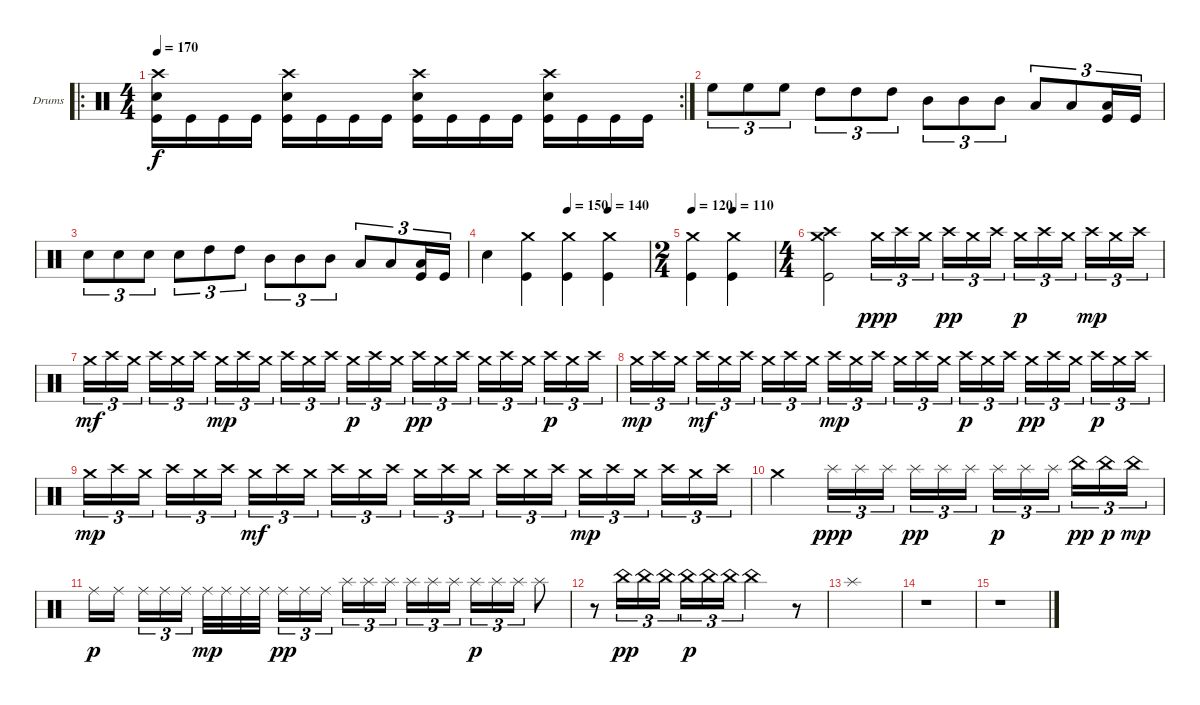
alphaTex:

\bracketExtendMode groupsimilarinstruments
\firstSystemTrackNameOrientation horizontal
\otherSystemsTrackNameOrientation horizontal
\track ("Дмитрий Кривенков" "Drums") {instrument percussion}
\staff {score}
\articulation defaults
\ro
\rc 2
\ts (4 4)
\tempo 170
\clef neutral
\ks c
("Crash high (hit)" "Snare (hit) 2" "Kick (hit)").16{dy f} "Kick (hit)".16 "Kick (hit)".16 "Kick (hit)".16 ("Crash high (hit)" "Snare (hit) 2" "Kick (hit)").16 "Kick (hit)".16 "Kick (hit)".16 "Kick (hit)".16 ("Crash high (hit)" "Snare (hit) 2" "Kick (hit)").16 "Kick (hit)".16 "Kick (hit)".16 "Kick (hit)".16 ("Crash high (hit)" "Snare (hit) 2" "Kick (hit)").16 "Kick (hit)".16 "Kick (hit)".16 "Kick (hit)".16 |
"High Floor Tom (hit)".8{tu (3 2)} "High Floor Tom (hit)".8{tu (3 2)} "High Floor Tom (hit)".8{tu (3 2)} "High Tom (hit)".8{tu (3 2)} "High Tom (hit)".8{tu (3 2)} "High Tom (hit)".8{tu (3 2)} "Mid Tom (hit)".8{tu (3 2)} "Mid Tom (hit)".8{tu (3 2)} "Mid Tom (hit)".8{tu (3 2)} "Low Tom (hit)".8{tu (3 2)} "Low Tom (hit)".8{tu (3 2)} ("Low Tom (hit)" "Kick (hit)").16{tu (3 2)} "Kick (hit)".16{tu (3 2)} |
"Snare (hit) 2".8{tu (3 2)} "Snare (hit) 2".8{tu (3 2)} "Snare (hit) 2".8{tu (3 2)} "Snare (hit) 2".8{tu (3 2)} "High Tom (hit)".8{tu (3 2)} "High Tom (hit)".8{tu (3 2)} "Mid Tom (hit)".8{tu (3 2)} "Mid Tom (hit)".8{tu (3 2)} "Mid Tom (hit)".8{tu (3 2)} "Low Tom (hit)".8{tu (3 2)} "Low Tom (hit)".8{tu (3 2)} ("Low Tom (hit)" "Kick (hit)").16{tu (3 2)} "Kick (hit)".16{tu (3 2)} |
\tempo (150 0.5)
\tempo (140 0.75)
"Snare (hit) 2".4 ("Crash medium (hit)" "Kick (hit)").4 ("Crash medium (hit)" "Kick (hit)").4 ("Crash medium (hit)" "Kick (hit)").4 |
\ts (2 4)
\beaming (8 2 2)
\tempo 120
\tempo (110 0.5)
("Crash medium (hit)" "Kick (hit)").4 ("Crash medium (hit)" "Kick (hit)").4 |
\ts (4 4)
\beaming (8 2 2 2 2)
("Crash high (hit)" "Crash medium (hit)" "Kick (hit)").2 "Crash medium (hit)".16{tu (3 2) dy ppp} "Crash high (hit)".16{tu (3 2)} "Crash medium (hit)".16{tu (3 2)} "Crash high (hit)".16{tu (3 2) dy pp} "Crash medium (hit)".16{tu (3 2)} "Crash high (hit)".16{tu (3 2)} "Crash medium (hit)".16{tu (3 2) dy p} "Crash high (hit)".16{tu (3 2)} "Crash medium (hit)".16{tu (3 2)} "Crash high (hit)".16{tu (3 2) dy mp} "Crash medium (hit)".16{tu (3 2)} "Crash high (hit)".16{tu (3 2)} |
"Crash medium (hit)".16{tu (3 2) dy mf} "Crash high (hit)".16{tu (3 2)} "Crash medium (hit)".16{tu (3 2)} "Crash high (hit)".16{tu (3 2)} "Crash medium (hit)".16{tu (3 2)} "Crash high (hit)".16{tu (3 2)} "Crash medium (hit)".16{tu (3 2) dy mp} "Crash high (hit)".16{tu (3 2)} "Crash medium (hit)".16{tu (3 2)} "Crash high (hit)".16{tu (3 2)} "Crash medium (hit)".16{tu (3 2)} "Crash high (hit)".16{tu (3 2)} "Crash medium (hit)".16{tu (3 2) dy p} "Crash high (hit)".16{tu (3 2)} "Crash medium (hit)".16{tu (3 2)} "Crash high (hit)".16{tu (3 2) dy pp} "Crash medium (hit)".16{tu (3 2)} "Crash high (hit)".16{tu (3 2)} "Crash medium (hit)".16{tu (3 2)} "Crash high (hit)".16{tu (3 2)} "Crash medium (hit)".16{tu (3 2)} "Crash high (hit)".16{tu (3 2) dy p} "Crash medium (hit)".16{tu (3 2)} "Crash high (hit)".16{tu (3 2)} |
"Crash medium (hit)".16{tu (3 2) dy mp} "Crash high (hit)".16{tu (3 2)} "Crash medium (hit)".16{tu (3 2)} "Crash high (hit)".16{tu (3 2) dy mf} "Crash medium (hit)".16{tu (3 2)} "Crash high (hit)".16{tu (3 2)} "Crash medium (hit)".16{tu (3 2)} "Crash high (hit)".16{tu (3 2)} "Crash medium (hit)".16{tu (3 2)} "Crash high (hit)".16{tu (3 2) dy mp} "Crash medium (hit)".16{tu (3 2)} "Crash high (hit)".16{tu (3 2)} "Crash medium (hit)".16{tu (3 2)} "Crash high (hit)".16{tu (3 2)} "Crash medium (hit)".16{tu (3 2)} "Crash high (hit)".16{tu (3 2) dy p} "Crash medium (hit)".16{tu (3 2)} "Crash high (hit)".16{tu (3 2)} "Crash medium (hit)".16{tu (3 2) dy pp} "Crash high (hit)".16{tu (3 2)} "Crash medium (hit)".16{tu (3 2)} "Crash high (hit)".16{tu (3 2) dy p} "Crash medium (hit)".16{tu (3 2)} "Crash high (hit)".16{tu (3 2)} |
"Crash medium (hit)".16{tu (3 2) dy mp} "Crash high (hit)".16{tu (3 2)} "Crash medium (hit)".16{tu (3 2)} "Crash high (hit)".16{tu (3 2)} "Crash medium (hit)".16{tu (3 2)} "Crash high (hit)".16{tu (3 2)} "Crash medium (hit)".16{tu (3 2) dy mf} "Crash high (hit)".16{tu (3 2)} "Crash medium (hit)".16{tu (3 2)} "Crash high (hit)".16{tu (3 2)} "Crash medium (hit)".16{tu (3 2)} "Crash high (hit)".16{tu (3 2)} "Crash medium (hit)".16{tu (3 2)} "Crash high (hit)".16{tu (3 2)} "Crash medium (hit)".16{tu (3 2)} "Crash high (hit)".16{tu (3 2)} "Crash medium (hit)".16{tu (3 2)} "Crash high (hit)".16{tu (3 2)} "Crash medium (hit)".16{tu (3 2) dy mp} "Crash high (hit)".16{tu (3 2)} "Crash medium (hit)".16{tu (3 2)} "Crash high (hit)".16{tu (3 2)} "Crash medium (hit)".16{tu (3 2)} "Crash high (hit)".16{tu (3 2)} |
"Crash medium (hit)".2 "Splash (hit)".16{tu (3 2) dy ppp} "Splash (hit)".16{tu (3 2)} "Splash (hit)".16{tu (3 2)} "Splash (hit)".16{tu (3 2) dy pp} "Splash (hit)".16{tu (3 2)} "Splash (hit)".16{tu (3 2)} "Splash (hit)".16{tu (3 2) dy p} "Splash (hit)".16{tu (3 2)} "Splash (hit)".16{tu (3 2)} "China (hit)".16{tu (3 2) dy pp} "China (hit)".16{tu (3 2) dy p} "China (hit)".16{tu (3 2) dy mp} |
"Ride (middle)".16{dy p} "Ride (middle)".16 "Ride (middle)".16{tu (3 2)} "Ride (middle)".16{tu (3 2)} "Ride (middle)".16{tu (3 2)} "Ride (middle)".32{dy mp} "Ride (middle)".32 "Ride (middle)".32 "Ride (middle)".32 "Ride (middle)".16{tu (3 2) dy pp} "Ride (middle)".16{tu (3 2)} "Ride (middle)".16{tu (3 2)} "Splash (hit)".16{tu (3 2)} "Splash (hit)".16{tu (3 2)} "Splash (hit)".16{tu (3 2)} "Splash (hit)".16{tu (3 2)} "Splash (hit)".16{tu (3 2)} "Splash (hit)".16{tu (3 2)} "Splash (hit)".16{tu (3 2) dy p} "Splash (hit)".16{tu (3 2)} "Splash (hit)".16{tu (3 2)} "Splash (hit)".8 |
r.8 "China (hit)".16{tu (3 2) dy pp} "China (hit)".16{tu (3 2)} "China (hit)".16{tu (3 2)} "China (hit)".16{tu (3 2) dy p} "China (hit)".16{tu (3 2)} "China (hit)".16{tu (3 2)} "China (hit)".2 r.8 |
"Splash (hit)".1 |
r.1 |
r.1
